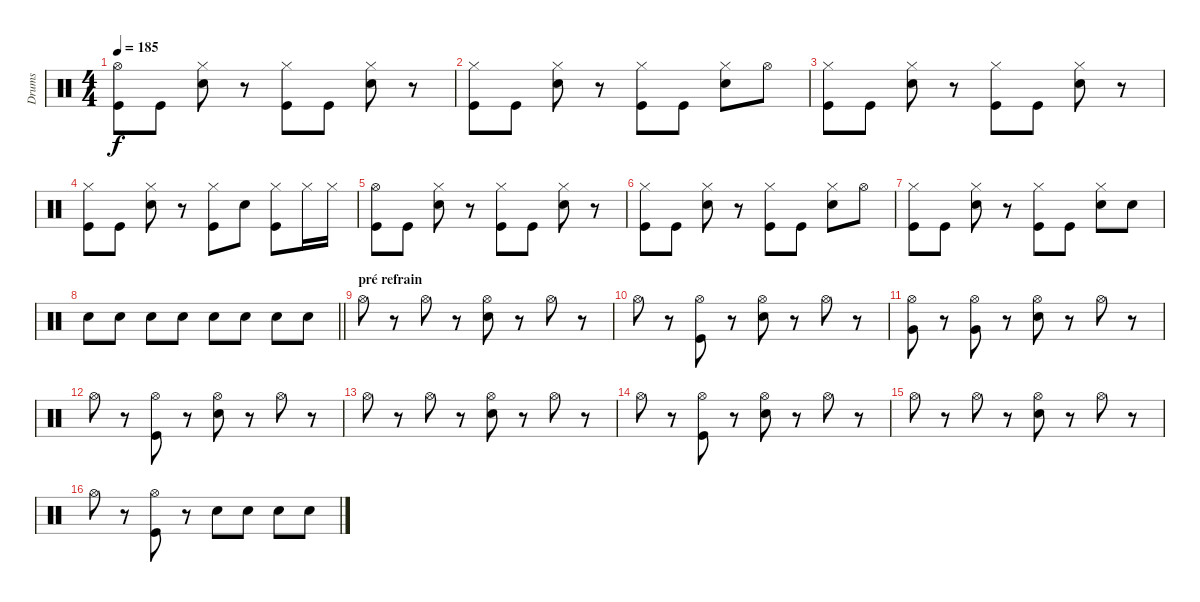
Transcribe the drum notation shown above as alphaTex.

\track ("Drums" "Drums") {instrument percussion}
\staff {score}
\articulation defaults
\ts (4 4)
\tempo 185
\clef neutral
\ks c
("Hi-Hat (open)" "Kick (hit)").8{dy f} "Kick (hit)".8 ("Hi-Hat (closed)" "Electric Snare (hit)").8 r.8 ("Hi-Hat (closed)" "Kick (hit)").8 "Kick (hit)".8 ("Hi-Hat (closed)" "Electric Snare (hit)").8 r.8 |
("Hi-Hat (closed)" "Kick (hit)").8 "Kick (hit)".8 ("Hi-Hat (closed)" "Electric Snare (hit)").8 r.8 ("Hi-Hat (closed)" "Kick (hit)").8 "Kick (hit)".8 ("Hi-Hat (closed)" "Electric Snare (hit)").8 "Hi-Hat (open)".8 |
("Hi-Hat (closed)" "Kick (hit)").8 "Kick (hit)".8 ("Hi-Hat (closed)" "Electric Snare (hit)").8 r.8 ("Hi-Hat (closed)" "Kick (hit)").8 "Kick (hit)".8 ("Hi-Hat (closed)" "Electric Snare (hit)").8 r.8 |
("Hi-Hat (closed)" "Kick (hit)").8 "Kick (hit)".8 ("Hi-Hat (closed)" "Electric Snare (hit)").8 r.8 ("Hi-Hat (closed)" "Kick (hit)").8 "Electric Snare (hit)".8 ("Hi-Hat (closed)" "Kick (hit)").8 "Hi-Hat (closed)".16 "Hi-Hat (closed)".16 |
("Hi-Hat (open)" "Kick (hit)").8 "Kick (hit)".8 ("Hi-Hat (closed)" "Electric Snare (hit)").8 r.8 ("Hi-Hat (closed)" "Kick (hit)").8 "Kick (hit)".8 ("Hi-Hat (closed)" "Electric Snare (hit)").8 r.8 |
("Hi-Hat (closed)" "Kick (hit)").8 "Kick (hit)".8 ("Hi-Hat (closed)" "Electric Snare (hit)").8 r.8 ("Hi-Hat (closed)" "Kick (hit)").8 "Kick (hit)".8 ("Hi-Hat (closed)" "Electric Snare (hit)").8 "Hi-Hat (open)".8 |
("Hi-Hat (closed)" "Kick (hit)").8 "Kick (hit)".8 ("Hi-Hat (closed)" "Electric Snare (hit)").8 r.8 ("Hi-Hat (closed)" "Kick (hit)").8 "Kick (hit)".8 ("Hi-Hat (closed)" "Electric Snare (hit)").8 "Electric Snare (hit)".8 |
\barLineRight lightlight "Electric Snare (hit)".8 "Electric Snare (hit)".8 "Electric Snare (hit)".8 "Electric Snare (hit)".8 "Electric Snare (hit)".8 "Electric Snare (hit)".8 "Electric Snare (hit)".8 "Electric Snare (hit)".8
|
\section ("" "pré refrain")
"Hi-Hat (open)".8 r.8 "Hi-Hat (open)".8 r.8 ("Hi-Hat (open)" "Electric Snare (hit)").8 r.8 "Hi-Hat (open)".8 r.8 |
"Hi-Hat (open)".8 r.8 ("Hi-Hat (open)" "Kick (hit)").8 r.8 ("Hi-Hat (open)" "Electric Snare (hit)").8 r.8 "Hi-Hat (open)".8 r.8 |
("Hi-Hat (open)" "Very Low Tom (hit)").8 r.8 ("Hi-Hat (open)" "Very Low Tom (hit)").8 r.8 ("Hi-Hat (open)" "Electric Snare (hit)").8 r.8 "Hi-Hat (open)".8 r.8 |
"Hi-Hat (open)".8 r.8 ("Hi-Hat (open)" "Kick (hit)").8 r.8 ("Hi-Hat (open)" "Electric Snare (hit)").8 r.8 "Hi-Hat (open)".8 r.8 |
"Hi-Hat (open)".8 r.8 "Hi-Hat (open)".8 r.8 ("Hi-Hat (open)" "Electric Snare (hit)").8 r.8 "Hi-Hat (open)".8 r.8 |
"Hi-Hat (open)".8 r.8 ("Hi-Hat (open)" "Kick (hit)").8 r.8 ("Hi-Hat (open)" "Electric Snare (hit)").8 r.8 "Hi-Hat (open)".8 r.8 |
"Hi-Hat (open)".8 r.8 "Hi-Hat (open)".8 r.8 ("Hi-Hat (open)" "Electric Snare (hit)").8 r.8 "Hi-Hat (open)".8 r.8 |
"Hi-Hat (open)".8 r.8 ("Hi-Hat (open)" "Kick (hit)").8 r.8 "Electric Snare (hit)".8 "Electric Snare (hit)".8 "Electric Snare (hit)".8 "Electric Snare (hit)".8
